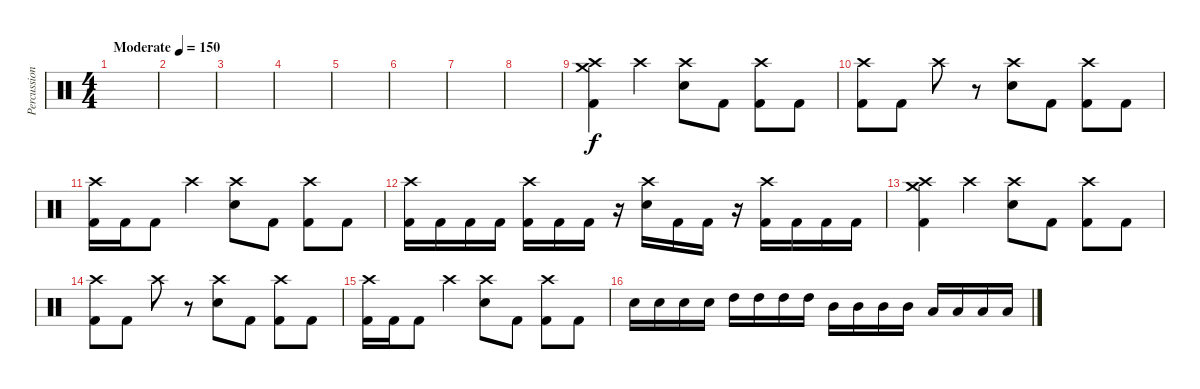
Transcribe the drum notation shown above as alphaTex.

\track ("Percussion" "Percussion") {instrument percussion}
\staff {score}
\articulation defaults
\ts (4 4)
\tempo (150 "Moderate")
\clef neutral
\ks c
|
|
|
|
|
|
|
|
("Crash medium (hit)" "Crash high (hit)" "Kick (hit) 2").4 "Crash high (hit)".4 ("Crash high (hit)" "Electric Snare (hit)").8 "Kick (hit) 2".8 ("Crash high (hit)" "Kick (hit) 2").8 "Kick (hit) 2".8 |
("Crash high (hit)" "Kick (hit) 2").8 "Kick (hit) 2".8 "Crash high (hit)".8 r.8 ("Crash high (hit)" "Electric Snare (hit)").8 "Kick (hit) 2".8 ("Crash high (hit)" "Kick (hit) 2").8 "Kick (hit) 2".8 |
("Crash high (hit)" "Kick (hit) 2").16 "Kick (hit) 2".16 "Kick (hit) 2".8 "Crash high (hit)".4 ("Crash high (hit)" "Electric Snare (hit)").8 "Kick (hit) 2".8 ("Crash high (hit)" "Kick (hit) 2").8 "Kick (hit) 2".8 |
("Crash high (hit)" "Kick (hit) 2").16 "Kick (hit) 2".16 "Kick (hit) 2".16 "Kick (hit) 2".16 ("Crash high (hit)" "Kick (hit) 2").16 "Kick (hit) 2".16 "Kick (hit) 2".16 r.16 ("Crash high (hit)" "Electric Snare (hit)").16 "Kick (hit) 2".16 "Kick (hit) 2".16 r.16 ("Crash high (hit)" "Kick (hit) 2").16 "Kick (hit) 2".16 "Kick (hit) 2".16 "Kick (hit) 2".16 |
("Crash medium (hit)" "Crash high (hit)" "Kick (hit) 2").4 "Crash high (hit)".4 ("Crash high (hit)" "Electric Snare (hit)").8 "Kick (hit) 2".8 ("Crash high (hit)" "Kick (hit) 2").8 "Kick (hit) 2".8 |
("Crash high (hit)" "Kick (hit) 2").8 "Kick (hit) 2".8 "Crash high (hit)".8 r.8 ("Crash high (hit)" "Electric Snare (hit)").8 "Kick (hit) 2".8 ("Crash high (hit)" "Kick (hit) 2").8 "Kick (hit) 2".8 |
("Crash high (hit)" "Kick (hit) 2").16 "Kick (hit) 2".16 "Kick (hit) 2".8 "Crash high (hit)".4 ("Crash high (hit)" "Electric Snare (hit)").8 "Kick (hit) 2".8 ("Crash high (hit)" "Kick (hit) 2").8 "Kick (hit) 2".8 |
"Electric Snare (hit)".16 "Electric Snare (hit)".16 "Electric Snare (hit)".16 "Electric Snare (hit)".16 "High Tom (hit)".16 "High Tom (hit)".16 "High Tom (hit)".16 "High Tom (hit)".16 "Mid Tom (hit)".16 "Mid Tom (hit)".16 "Mid Tom (hit)".16 "Mid Tom (hit)".16 "Low Tom (hit)".16 "Low Tom (hit)".16 "Low Tom (hit)".16 "Low Tom (hit)".16
